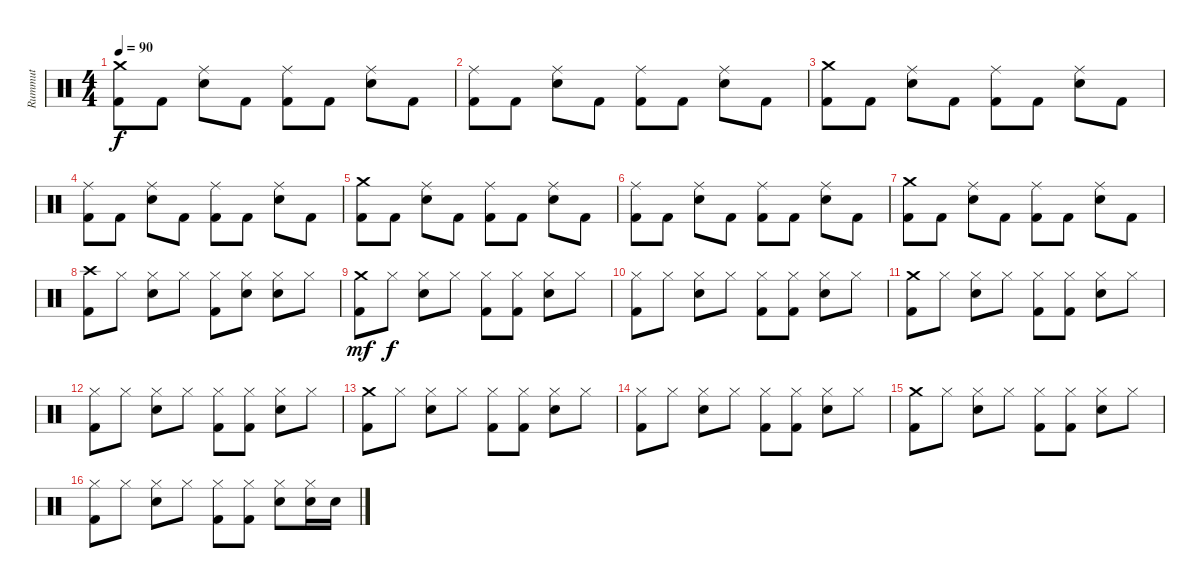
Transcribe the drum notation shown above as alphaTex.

\track ("Rummut" "Rummut") {instrument percussion}
\staff {score}
\articulation defaults
\ts (4 4)
\tempo 90
\clef neutral
\ks c
("Kick (hit) 2" "Crash medium (hit)").8{dy f} "Kick (hit) 2".8 ("Ride (middle)" "Snare (hit) 2").8 "Kick (hit) 2".8 ("Kick (hit) 2" "Ride (middle)").8 "Kick (hit) 2".8 ("Ride (middle)" "Snare (hit) 2").8 "Kick (hit) 2".8 |
("Kick (hit) 2" "Ride (middle)").8 "Kick (hit) 2".8 ("Ride (middle)" "Snare (hit) 2").8 "Kick (hit) 2".8 ("Kick (hit) 2" "Ride (middle)").8 "Kick (hit) 2".8 ("Ride (middle)" "Snare (hit) 2").8 "Kick (hit) 2".8 |
("Kick (hit) 2" "Crash medium (hit)").8 "Kick (hit) 2".8 ("Ride (middle)" "Snare (hit) 2").8 "Kick (hit) 2".8 ("Kick (hit) 2" "Ride (middle)").8 "Kick (hit) 2".8 ("Ride (middle)" "Snare (hit) 2").8 "Kick (hit) 2".8 |
("Kick (hit) 2" "Ride (middle)").8 "Kick (hit) 2".8 ("Ride (middle)" "Snare (hit) 2").8 "Kick (hit) 2".8 ("Kick (hit) 2" "Ride (middle)").8 "Kick (hit) 2".8 ("Ride (middle)" "Snare (hit) 2").8 "Kick (hit) 2".8 |
("Kick (hit) 2" "Crash medium (hit)").8 "Kick (hit) 2".8 ("Ride (middle)" "Snare (hit) 2").8 "Kick (hit) 2".8 ("Kick (hit) 2" "Ride (middle)").8 "Kick (hit) 2".8 ("Ride (middle)" "Snare (hit) 2").8 "Kick (hit) 2".8 |
("Kick (hit) 2" "Ride (middle)").8 "Kick (hit) 2".8 ("Ride (middle)" "Snare (hit) 2").8 "Kick (hit) 2".8 ("Kick (hit) 2" "Ride (middle)").8 "Kick (hit) 2".8 ("Ride (middle)" "Snare (hit) 2").8 "Kick (hit) 2".8 |
("Kick (hit) 2" "Crash medium (hit)").8 "Kick (hit) 2".8 ("Ride (middle)" "Snare (hit) 2").8 "Kick (hit) 2".8 ("Kick (hit) 2" "Ride (middle)").8 "Kick (hit) 2".8 ("Ride (middle)" "Snare (hit) 2").8 "Kick (hit) 2".8 |
("Kick (hit) 2" "Crash high (hit)").8 "Hi-Hat (closed)".8 ("Hi-Hat (closed)" "Snare (hit) 2").8 "Hi-Hat (closed)".8 ("Kick (hit) 2" "Hi-Hat (closed)").8 ("Hi-Hat (closed)" "Snare (hit) 2").8 ("Hi-Hat (closed)" "Snare (hit) 2").8 "Hi-Hat (closed)".8 |
("Kick (hit) 2" "Crash medium (hit)").8{dy mf} "Hi-Hat (closed)".8{dy f} ("Hi-Hat (closed)" "Snare (hit) 2").8 "Hi-Hat (closed)".8 ("Kick (hit) 2" "Hi-Hat (closed)").8 ("Kick (hit) 2" "Hi-Hat (closed)").8 ("Hi-Hat (closed)" "Snare (hit) 2").8 "Hi-Hat (closed)".8 |
("Kick (hit) 2" "Hi-Hat (closed)").8 "Hi-Hat (closed)".8 ("Hi-Hat (closed)" "Snare (hit) 2").8 "Hi-Hat (closed)".8 ("Kick (hit) 2" "Hi-Hat (closed)").8 ("Kick (hit) 2" "Hi-Hat (closed)").8 ("Hi-Hat (closed)" "Snare (hit) 2").8 "Hi-Hat (closed)".8 |
("Kick (hit) 2" "Crash medium (hit)").8 "Hi-Hat (closed)".8 ("Hi-Hat (closed)" "Snare (hit) 2").8 "Hi-Hat (closed)".8 ("Kick (hit) 2" "Hi-Hat (closed)").8 ("Kick (hit) 2" "Hi-Hat (closed)").8 ("Hi-Hat (closed)" "Snare (hit) 2").8 "Hi-Hat (closed)".8 |
("Kick (hit) 2" "Hi-Hat (closed)").8 "Hi-Hat (closed)".8 ("Hi-Hat (closed)" "Snare (hit) 2").8 "Hi-Hat (closed)".8 ("Kick (hit) 2" "Hi-Hat (closed)").8 ("Kick (hit) 2" "Hi-Hat (closed)").8 ("Hi-Hat (closed)" "Snare (hit) 2").8 "Hi-Hat (closed)".8 |
("Kick (hit) 2" "Crash medium (hit)").8 "Hi-Hat (closed)".8 ("Hi-Hat (closed)" "Snare (hit) 2").8 "Hi-Hat (closed)".8 ("Kick (hit) 2" "Hi-Hat (closed)").8 ("Kick (hit) 2" "Hi-Hat (closed)").8 ("Hi-Hat (closed)" "Snare (hit) 2").8 "Hi-Hat (closed)".8 |
("Kick (hit) 2" "Hi-Hat (closed)").8 "Hi-Hat (closed)".8 ("Hi-Hat (closed)" "Snare (hit) 2").8 "Hi-Hat (closed)".8 ("Kick (hit) 2" "Hi-Hat (closed)").8 ("Kick (hit) 2" "Hi-Hat (closed)").8 ("Hi-Hat (closed)" "Snare (hit) 2").8 "Hi-Hat (closed)".8 |
("Kick (hit) 2" "Crash medium (hit)").8 "Hi-Hat (closed)".8 ("Hi-Hat (closed)" "Snare (hit) 2").8 "Hi-Hat (closed)".8 ("Kick (hit) 2" "Hi-Hat (closed)").8 ("Kick (hit) 2" "Hi-Hat (closed)").8 ("Hi-Hat (closed)" "Snare (hit) 2").8 "Hi-Hat (closed)".8 |
("Kick (hit) 2" "Hi-Hat (closed)").8 "Hi-Hat (closed)".8 ("Hi-Hat (closed)" "Snare (hit) 2").8 "Hi-Hat (closed)".8 ("Kick (hit) 2" "Hi-Hat (closed)").8 ("Kick (hit) 2" "Hi-Hat (closed)").8 ("Hi-Hat (closed)" "Snare (hit) 2").8 ("Hi-Hat (closed)" "Snare (hit) 2").16 "Snare (hit) 2".16
